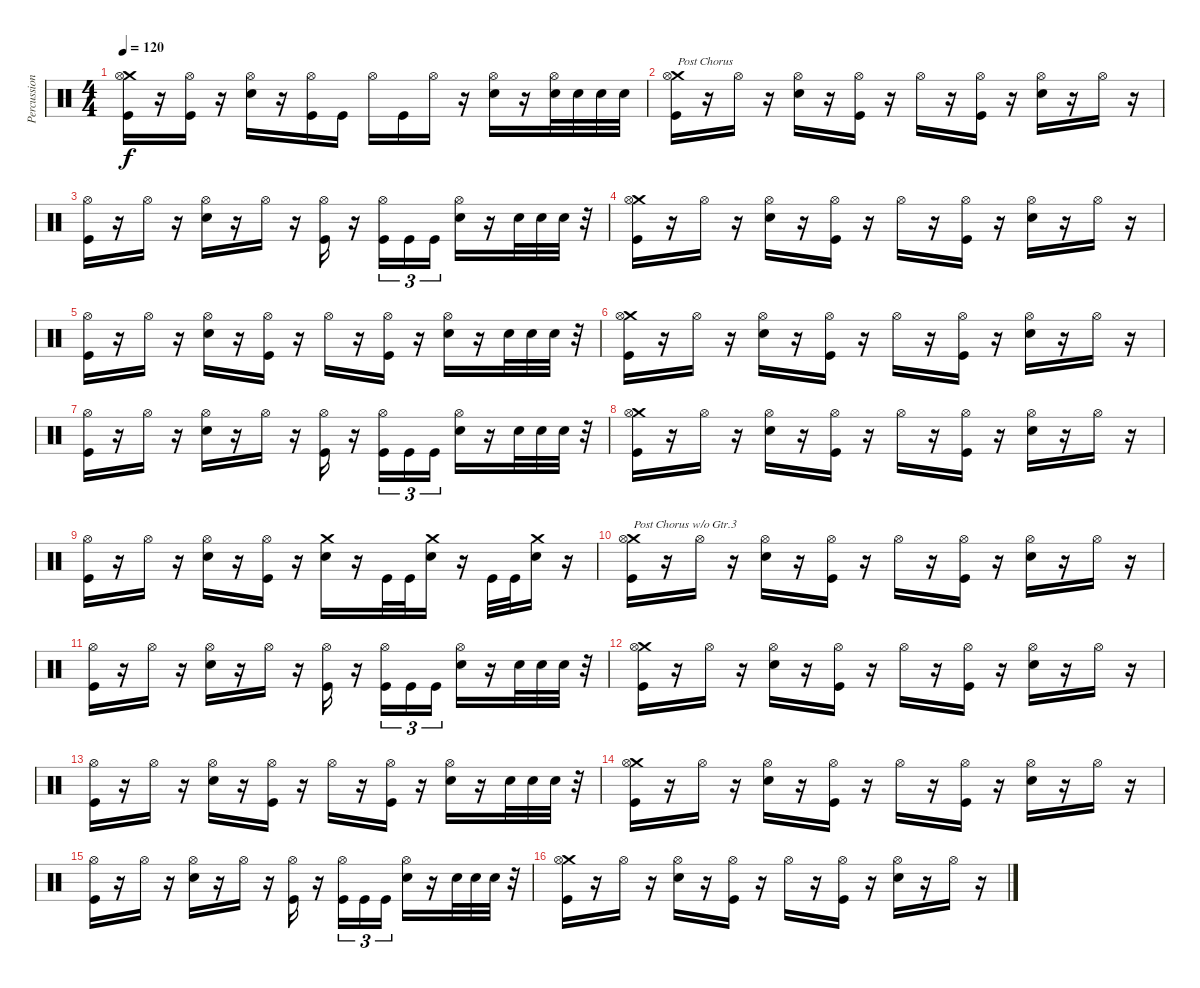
\track ("Percussion" "Percussion") {instrument percussion}
\staff {score}
\articulation defaults
\ts (4 4)
\tempo 120
\clef neutral
\ks c
("Crash medium (hit)" "Hi-Hat (open)" "Kick (hit)").16{dy f} r.16 ("Hi-Hat (open)" "Kick (hit)").16 r.16 ("Hi-Hat (open)" "Electric Snare (hit)").16 r.16 ("Hi-Hat (open)" "Kick (hit)").16 "Kick (hit)".16 "Hi-Hat (open)".16 "Kick (hit)".16 "Hi-Hat (open)".16 r.16 ("Hi-Hat (open)" "Electric Snare (hit)").16 r.16 ("Hi-Hat (open)" "Electric Snare (hit)").32 "Electric Snare (hit)".32 "Electric Snare (hit)".32 "Electric Snare (hit)".32 |
("Crash medium (hit)" "Hi-Hat (open)" "Kick (hit)").16{txt "Post Chorus"} r.16 "Hi-Hat (open)".16 r.16 ("Hi-Hat (open)" "Electric Snare (hit)").16 r.16 ("Hi-Hat (open)" "Kick (hit)").16 r.16 "Hi-Hat (open)".16 r.16 ("Hi-Hat (open)" "Kick (hit)").16 r.16 ("Hi-Hat (open)" "Electric Snare (hit)").16 r.16 "Hi-Hat (open)".16 r.16 |
("Hi-Hat (open)" "Kick (hit)").16 r.16 "Hi-Hat (open)".16 r.16 ("Hi-Hat (open)" "Electric Snare (hit)").16 r.16 "Hi-Hat (open)".16 r.16 ("Hi-Hat (open)" "Kick (hit)").16 r.16 ("Hi-Hat (open)" "Kick (hit)").16{tu (3 2)} "Kick (hit)".16{tu (3 2)} "Kick (hit)".16{tu (3 2)} ("Hi-Hat (open)" "Electric Snare (hit)").16 r.16 "Electric Snare (hit)".32 "Electric Snare (hit)".32 "Electric Snare (hit)".32 r.32 |
("Crash medium (hit)" "Hi-Hat (open)" "Kick (hit)").16 r.16 "Hi-Hat (open)".16 r.16 ("Hi-Hat (open)" "Electric Snare (hit)").16 r.16 ("Hi-Hat (open)" "Kick (hit)").16 r.16 "Hi-Hat (open)".16 r.16 ("Hi-Hat (open)" "Kick (hit)").16 r.16 ("Hi-Hat (open)" "Electric Snare (hit)").16 r.16 "Hi-Hat (open)".16 r.16 |
("Hi-Hat (open)" "Kick (hit)").16 r.16 "Hi-Hat (open)".16 r.16 ("Hi-Hat (open)" "Electric Snare (hit)").16 r.16 ("Hi-Hat (open)" "Kick (hit)").16 r.16 "Hi-Hat (open)".16 r.16 ("Hi-Hat (open)" "Kick (hit)").16 r.16 ("Hi-Hat (open)" "Electric Snare (hit)").16 r.16 "Electric Snare (hit)".32 "Electric Snare (hit)".32 "Electric Snare (hit)".32 r.32 |
("Crash medium (hit)" "Hi-Hat (open)" "Kick (hit)").16 r.16 "Hi-Hat (open)".16 r.16 ("Hi-Hat (open)" "Electric Snare (hit)").16 r.16 ("Hi-Hat (open)" "Kick (hit)").16 r.16 "Hi-Hat (open)".16 r.16 ("Hi-Hat (open)" "Kick (hit)").16 r.16 ("Hi-Hat (open)" "Electric Snare (hit)").16 r.16 "Hi-Hat (open)".16 r.16 |
("Hi-Hat (open)" "Kick (hit)").16 r.16 "Hi-Hat (open)".16 r.16 ("Hi-Hat (open)" "Electric Snare (hit)").16 r.16 "Hi-Hat (open)".16 r.16 ("Hi-Hat (open)" "Kick (hit)").16 r.16 ("Hi-Hat (open)" "Kick (hit)").16{tu (3 2)} "Kick (hit)".16{tu (3 2)} "Kick (hit)".16{tu (3 2)} ("Hi-Hat (open)" "Electric Snare (hit)").16 r.16 "Electric Snare (hit)".32 "Electric Snare (hit)".32 "Electric Snare (hit)".32 r.32 |
("Crash medium (hit)" "Hi-Hat (open)" "Kick (hit)").16 r.16 "Hi-Hat (open)".16 r.16 ("Hi-Hat (open)" "Electric Snare (hit)").16 r.16 ("Hi-Hat (open)" "Kick (hit)").16 r.16 "Hi-Hat (open)".16 r.16 ("Hi-Hat (open)" "Kick (hit)").16 r.16 ("Hi-Hat (open)" "Electric Snare (hit)").16 r.16 "Hi-Hat (open)".16 r.16 |
("Hi-Hat (open)" "Kick (hit)").16 r.16 "Hi-Hat (open)".16 r.16 ("Hi-Hat (open)" "Electric Snare (hit)").16 r.16 ("Hi-Hat (open)" "Kick (hit)").16 r.16 ("Crash medium (hit)" "Electric Snare (hit)").16 r.16 "Kick (hit)".32 "Kick (hit)".32 ("Crash medium (hit)" "Electric Snare (hit)").16 r.16 "Kick (hit)".32 "Kick (hit)".32 ("Crash medium (hit)" "Electric Snare (hit)").16 r.16 |
("Crash medium (hit)" "Hi-Hat (open)" "Kick (hit)").16{txt "Post Chorus w/o Gtr.3"} r.16 "Hi-Hat (open)".16 r.16 ("Hi-Hat (open)" "Electric Snare (hit)").16 r.16 ("Hi-Hat (open)" "Kick (hit)").16 r.16 "Hi-Hat (open)".16 r.16 ("Hi-Hat (open)" "Kick (hit)").16 r.16 ("Hi-Hat (open)" "Electric Snare (hit)").16 r.16 "Hi-Hat (open)".16 r.16 |
("Hi-Hat (open)" "Kick (hit)").16 r.16 "Hi-Hat (open)".16 r.16 ("Hi-Hat (open)" "Electric Snare (hit)").16 r.16 "Hi-Hat (open)".16 r.16 ("Hi-Hat (open)" "Kick (hit)").16 r.16 ("Hi-Hat (open)" "Kick (hit)").16{tu (3 2)} "Kick (hit)".16{tu (3 2)} "Kick (hit)".16{tu (3 2)} ("Hi-Hat (open)" "Electric Snare (hit)").16 r.16 "Electric Snare (hit)".32 "Electric Snare (hit)".32 "Electric Snare (hit)".32 r.32 |
("Crash medium (hit)" "Hi-Hat (open)" "Kick (hit)").16 r.16 "Hi-Hat (open)".16 r.16 ("Hi-Hat (open)" "Electric Snare (hit)").16 r.16 ("Hi-Hat (open)" "Kick (hit)").16 r.16 "Hi-Hat (open)".16 r.16 ("Hi-Hat (open)" "Kick (hit)").16 r.16 ("Hi-Hat (open)" "Electric Snare (hit)").16 r.16 "Hi-Hat (open)".16 r.16 |
("Hi-Hat (open)" "Kick (hit)").16 r.16 "Hi-Hat (open)".16 r.16 ("Hi-Hat (open)" "Electric Snare (hit)").16 r.16 ("Hi-Hat (open)" "Kick (hit)").16 r.16 "Hi-Hat (open)".16 r.16 ("Hi-Hat (open)" "Kick (hit)").16 r.16 ("Hi-Hat (open)" "Electric Snare (hit)").16 r.16 "Electric Snare (hit)".32 "Electric Snare (hit)".32 "Electric Snare (hit)".32 r.32 |
("Crash medium (hit)" "Hi-Hat (open)" "Kick (hit)").16 r.16 "Hi-Hat (open)".16 r.16 ("Hi-Hat (open)" "Electric Snare (hit)").16 r.16 ("Hi-Hat (open)" "Kick (hit)").16 r.16 "Hi-Hat (open)".16 r.16 ("Hi-Hat (open)" "Kick (hit)").16 r.16 ("Hi-Hat (open)" "Electric Snare (hit)").16 r.16 "Hi-Hat (open)".16 r.16 |
("Hi-Hat (open)" "Kick (hit)").16 r.16 "Hi-Hat (open)".16 r.16 ("Hi-Hat (open)" "Electric Snare (hit)").16 r.16 "Hi-Hat (open)".16 r.16 ("Hi-Hat (open)" "Kick (hit)").16 r.16 ("Hi-Hat (open)" "Kick (hit)").16{tu (3 2)} "Kick (hit)".16{tu (3 2)} "Kick (hit)".16{tu (3 2)} ("Hi-Hat (open)" "Electric Snare (hit)").16 r.16 "Electric Snare (hit)".32 "Electric Snare (hit)".32 "Electric Snare (hit)".32 r.32 |
("Crash medium (hit)" "Hi-Hat (open)" "Kick (hit)").16 r.16 "Hi-Hat (open)".16 r.16 ("Hi-Hat (open)" "Electric Snare (hit)").16 r.16 ("Hi-Hat (open)" "Kick (hit)").16 r.16 "Hi-Hat (open)".16 r.16 ("Hi-Hat (open)" "Kick (hit)").16 r.16 ("Hi-Hat (open)" "Electric Snare (hit)").16 r.16 "Hi-Hat (open)".16 r.16
